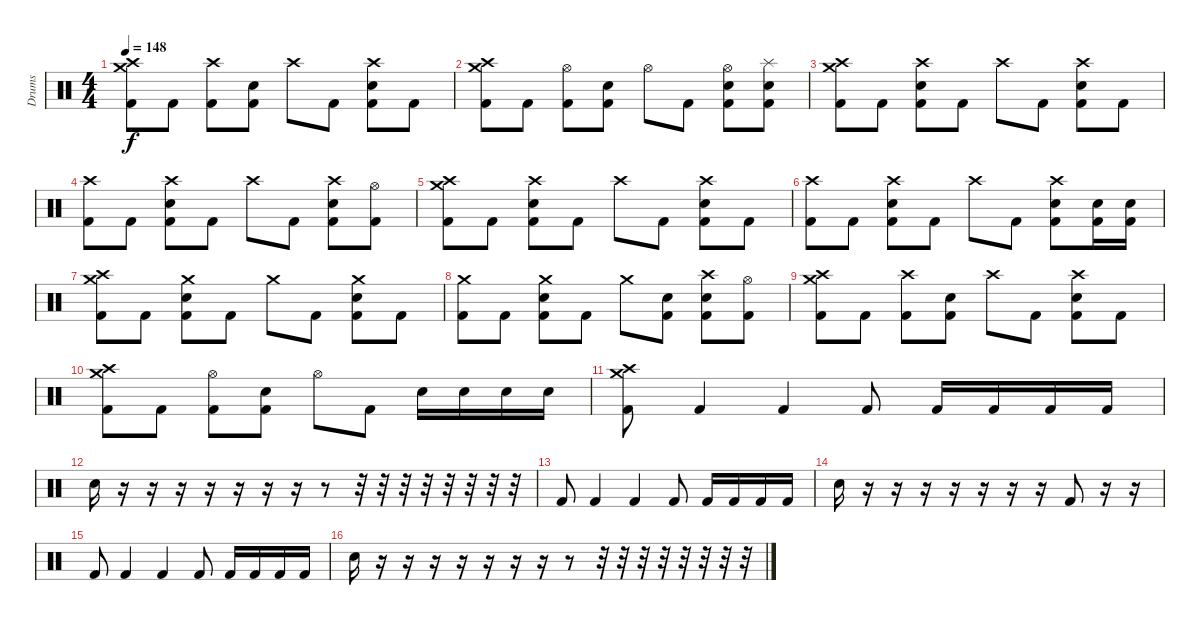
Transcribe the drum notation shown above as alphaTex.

\track ("Drums" "Drums") {solo instrument percussion}
\staff {score}
\articulation defaults
\ts (4 4)
\tempo 148
\clef neutral
\ks c
("Crash high (hit)" "Crash medium (hit)" "Kick (hit) 2").8{dy f} "Kick (hit) 2".8 ("Crash high (hit)" "Kick (hit) 2").8 ("Electric Snare (hit)" "Kick (hit) 2").8 "Crash high (hit)".8 "Kick (hit) 2".8 ("Crash high (hit)" "Electric Snare (hit)" "Kick (hit) 2").8 "Kick (hit) 2".8 |
("Crash high (hit)" "Crash medium (hit)" "Kick (hit) 2").8 "Kick (hit) 2".8 ("Hi-Hat (open)" "Kick (hit) 2").8 ("Electric Snare (hit)" "Kick (hit) 2").8 "Hi-Hat (open)".8 "Kick (hit) 2".8 ("Hi-Hat (open)" "Electric Snare (hit)" "Kick (hit) 2").8 ("Splash (hit)" "Electric Snare (hit)" "Kick (hit) 2").8 |
("Crash high (hit)" "Crash medium (hit)" "Kick (hit) 2").8 "Kick (hit) 2".8 ("Crash high (hit)" "Electric Snare (hit)" "Kick (hit) 2").8 "Kick (hit) 2".8 "Crash high (hit)".8 "Kick (hit) 2".8 ("Crash high (hit)" "Electric Snare (hit)" "Kick (hit) 2").8 "Kick (hit) 2".8 |
("Crash high (hit)" "Kick (hit) 2").8 "Kick (hit) 2".8 ("Crash high (hit)" "Electric Snare (hit)" "Kick (hit) 2").8 "Kick (hit) 2".8 "Crash high (hit)".8 "Kick (hit) 2".8 ("Crash high (hit)" "Electric Snare (hit)" "Kick (hit) 2").8 ("Hi-Hat (open)" "Kick (hit) 2").8 |
("Crash high (hit)" "Crash medium (hit)" "Kick (hit) 2").8 "Kick (hit) 2".8 ("Crash high (hit)" "Electric Snare (hit)" "Kick (hit) 2").8 "Kick (hit) 2".8 "Crash high (hit)".8 "Kick (hit) 2".8 ("Crash high (hit)" "Electric Snare (hit)" "Kick (hit) 2").8 "Kick (hit) 2".8 |
("Crash high (hit)" "Kick (hit) 2").8 "Kick (hit) 2".8 ("Crash high (hit)" "Electric Snare (hit)" "Kick (hit) 2").8 "Kick (hit) 2".8 "Crash high (hit)".8 "Kick (hit) 2".8 ("Crash high (hit)" "Electric Snare (hit)" "Kick (hit) 2").8 ("Electric Snare (hit)" "Kick (hit) 2").16 ("Electric Snare (hit)" "Kick (hit) 2").16 |
("Crash medium (hit)" "Crash high (hit)" "Kick (hit) 2").8 "Kick (hit) 2".8 ("Crash medium (hit)" "Electric Snare (hit)" "Kick (hit) 2").8 "Kick (hit) 2".8 "Crash medium (hit)".8 "Kick (hit) 2".8 ("Crash medium (hit)" "Electric Snare (hit)" "Kick (hit) 2").8 "Kick (hit) 2".8 |
("Crash medium (hit)" "Kick (hit) 2").8 "Kick (hit) 2".8 ("Crash medium (hit)" "Electric Snare (hit)" "Kick (hit) 2").8 "Kick (hit) 2".8 "Crash medium (hit)".8 ("Electric Snare (hit)" "Kick (hit) 2").8 ("Crash high (hit)" "Electric Snare (hit)" "Kick (hit) 2").8 ("Hi-Hat (open)" "Kick (hit) 2").8 |
("Crash high (hit)" "Crash medium (hit)" "Kick (hit) 2").8 "Kick (hit) 2".8 ("Crash high (hit)" "Kick (hit) 2").8 ("Electric Snare (hit)" "Kick (hit) 2").8 "Crash high (hit)".8 "Kick (hit) 2".8 ("Crash high (hit)" "Electric Snare (hit)" "Kick (hit) 2").8 "Kick (hit) 2".8 |
("Crash high (hit)" "Crash medium (hit)" "Kick (hit) 2").8 "Kick (hit) 2".8 ("Hi-Hat (open)" "Kick (hit) 2").8 ("Electric Snare (hit)" "Kick (hit) 2").8 "Hi-Hat (open)".8 "Kick (hit) 2".8 "Electric Snare (hit)".16 "Electric Snare (hit)".16 "Electric Snare (hit)".16 "Electric Snare (hit)".16 |
("Crash medium (hit)" "Crash high (hit)" "Kick (hit) 2").8 "Kick (hit) 2".4 "Kick (hit) 2".4 "Kick (hit) 2".8 "Kick (hit) 2".16 "Kick (hit) 2".16 "Kick (hit) 2".16 "Kick (hit) 2".16 |
"Electric Snare (hit)".16 r.16 r.16 r.16 r.16 r.16 r.16 r.16 r.8 r.32 r.32 r.32 r.32 r.32 r.32 r.32 r.32 |
"Kick (hit) 2".8 "Kick (hit) 2".4 "Kick (hit) 2".4 "Kick (hit) 2".8 "Kick (hit) 2".16 "Kick (hit) 2".16 "Kick (hit) 2".16 "Kick (hit) 2".16 |
"Electric Snare (hit)".16 r.16 r.16 r.16 r.16 r.16 r.16 r.16 "Kick (hit) 2".8 r.16 r.16 |
"Kick (hit) 2".8 "Kick (hit) 2".4 "Kick (hit) 2".4 "Kick (hit) 2".8 "Kick (hit) 2".16 "Kick (hit) 2".16 "Kick (hit) 2".16 "Kick (hit) 2".16 |
"Electric Snare (hit)".16 r.16 r.16 r.16 r.16 r.16 r.16 r.16 r.8 r.32 r.32 r.32 r.32 r.32 r.32 r.32 r.32
